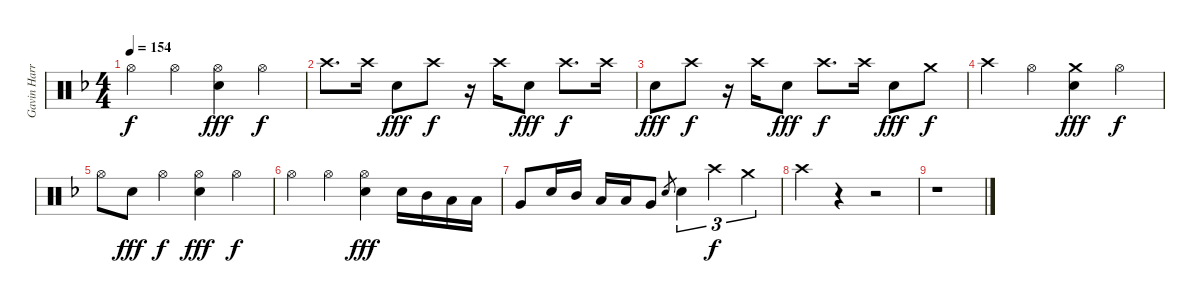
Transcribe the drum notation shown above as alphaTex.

\track ("Gavin Harrison Drums" "Gavin Harr") {instrument percussion}
\staff {score}
\articulation defaults
\ts (4 4)
\tempo 154
\clef neutral
\ks dminor "Hi-Hat (open)".4{dy f} "Hi-Hat (open)".4
("Hi-Hat (open)" "Electric Snare (hit)").4{dy fff} "Hi-Hat (open)".4{dy f} |
"Crash high (hit)".8{d} "Crash high (hit)".16 "Electric Snare (hit)".8{dy fff} "Crash high (hit)".8{dy f} r.16 "Crash high (hit)".16 "Electric Snare (hit)".8{dy fff} "Crash high (hit)".8{d dy f} "Crash high (hit)".16 |
"Electric Snare (hit)".8{dy fff} "Crash high (hit)".8{dy f} r.16 "Crash high (hit)".16 "Electric Snare (hit)".8{dy fff} "Crash high (hit)".8{d dy f} "Crash high (hit)".16 "Electric Snare (hit)".8{dy fff} "Crash medium (hit)".8{dy f} |
"Crash high (hit)".4 "Hi-Hat (open)".4 ("Crash medium (hit)" "Electric Snare (hit)").4{dy fff} "Hi-Hat (open)".4{dy f} |
"Hi-Hat (open)".8 "Electric Snare (hit)".8{dy fff} "Hi-Hat (open)".4{dy f} ("Hi-Hat (open)" "Electric Snare (hit)").4{dy fff} "Hi-Hat (open)".4{dy f} |
"Hi-Hat (open)".4 "Hi-Hat (open)".4 ("Hi-Hat (open)" "Electric Snare (hit)").4{dy fff} "Electric Snare (hit)".16 "Mid Tom (hit)".16 "Low Tom (hit)".16 "Low Tom (hit)".16 |
"Very Low Tom (hit)".8 "Electric Snare (hit)".16 "Mid Tom (hit)".16 "Low Tom (hit)".16 "Low Tom (hit)".16 "Very Low Tom (hit)".8 "Electric Snare (hit)".8{gr} "Electric Snare (hit)".4{tu (3 2)} "Crash high (hit)".4{tu (3 2) dy f} "Crash medium (hit)".4{tu (3 2)} |
"Crash high (hit)".4 r.4 r.2 |
r.1
